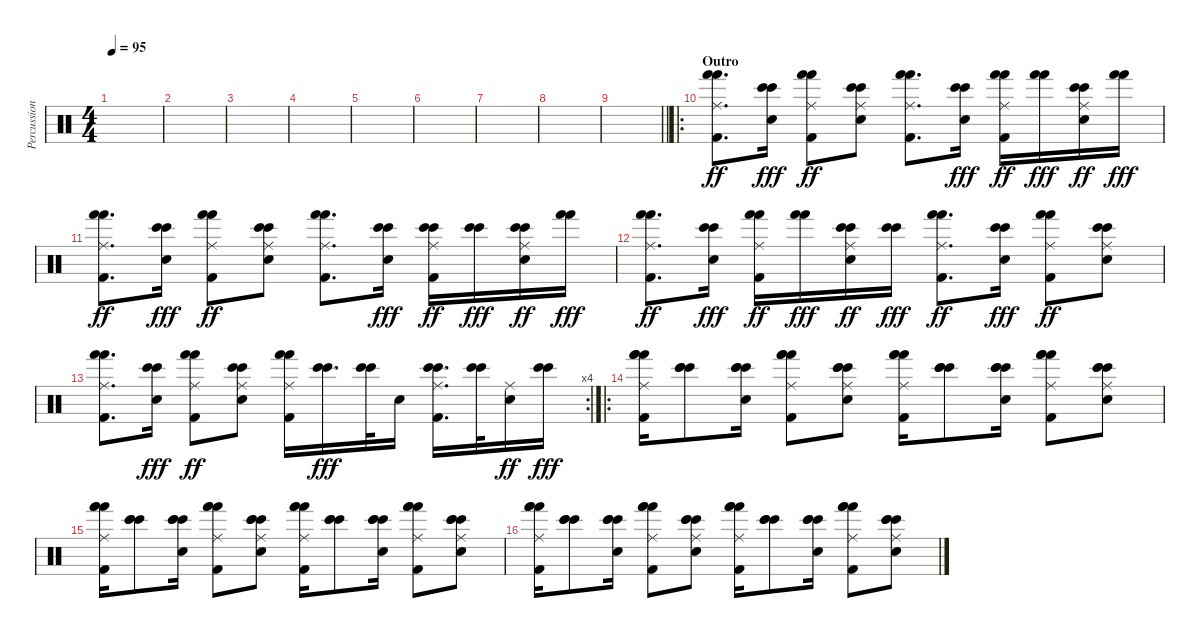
\track ("Percussions" "Percussion") {instrument percussion}
\staff {score}
\articulation defaults
\ts (4 4)
\tempo 95
\clef neutral
\ks c
|
|
|
|
|
|
|
|
\barLineRight lightlight
|
\ro
\section ("" "Outro")
("Hand (hit)" "Hand (hit)" "Kick (hit) 2" "Ride (middle)").8{d dy ff} ("Bongo High (hit)" "Bongo High (hit)" "Electric Snare (hit)").16{dy fff} ("Hand (hit)" "Hand (hit)" "Kick (hit) 2" "Ride (middle)").8{dy ff} ("Bongo High (hit)" "Bongo High (hit)" "Electric Snare (hit)" "Ride (middle)").8 ("Hand (hit)" "Hand (hit)" "Kick (hit) 2" "Ride (middle)").8{d} ("Bongo High (hit)" "Bongo High (hit)" "Electric Snare (hit)").16{dy fff} ("Hand (hit)" "Hand (hit)" "Kick (hit) 2" "Ride (middle)").16{dy ff} ("Hand (hit)" "Hand (hit)").16{dy fff} ("Bongo High (hit)" "Bongo High (hit)" "Electric Snare (hit)" "Ride (middle)").16{dy ff} ("Hand (hit)" "Hand (hit)").16{dy fff} |
("Hand (hit)" "Hand (hit)" "Kick (hit) 2" "Ride (middle)").8{d dy ff} ("Bongo High (hit)" "Bongo High (hit)" "Electric Snare (hit)").16{dy fff} ("Hand (hit)" "Hand (hit)" "Kick (hit) 2" "Ride (middle)").8{dy ff} ("Bongo High (hit)" "Bongo High (hit)" "Electric Snare (hit)" "Ride (middle)").8 ("Hand (hit)" "Hand (hit)" "Kick (hit) 2" "Ride (middle)").8{d} ("Bongo High (hit)" "Bongo High (hit)" "Electric Snare (hit)").16{dy fff} ("Bongo High (hit)" "Bongo High (hit)" "Kick (hit) 2" "Ride (middle)").16{dy ff} ("Bongo High (hit)" "Bongo High (hit)").16{dy fff} ("Bongo High (hit)" "Bongo High (hit)" "Electric Snare (hit)" "Ride (middle)").16{dy ff} ("Hand (hit)" "Hand (hit)").16{dy fff} |
("Hand (hit)" "Hand (hit)" "Kick (hit) 2" "Ride (middle)").8{d dy ff} ("Bongo High (hit)" "Bongo High (hit)" "Electric Snare (hit)").16{dy fff} ("Hand (hit)" "Hand (hit)" "Kick (hit) 2" "Ride (middle)").16{dy ff} ("Hand (hit)" "Hand (hit)").16{dy fff} ("Bongo High (hit)" "Bongo High (hit)" "Electric Snare (hit)" "Ride (middle)").16{dy ff} ("Bongo High (hit)" "Bongo High (hit)").16{dy fff} ("Hand (hit)" "Hand (hit)" "Kick (hit) 2" "Ride (middle)").8{d dy ff} ("Bongo High (hit)" "Bongo High (hit)" "Electric Snare (hit)").16{dy fff} ("Hand (hit)" "Hand (hit)" "Kick (hit) 2" "Ride (middle)").8{dy ff} ("Bongo High (hit)" "Bongo High (hit)" "Electric Snare (hit)" "Ride (middle)").8 |
\rc 4
("Hand (hit)" "Hand (hit)" "Kick (hit) 2" "Ride (middle)").8{d} ("Bongo High (hit)" "Bongo High (hit)" "Electric Snare (hit)").16{dy fff} ("Hand (hit)" "Hand (hit)" "Kick (hit) 2" "Ride (middle)").8{dy ff} ("Bongo High (hit)" "Bongo High (hit)" "Electric Snare (hit)" "Ride (middle)").8 ("Hand (hit)" "Hand (hit)" "Kick (hit) 2" "Ride (middle)").16 ("Bongo High (hit)" "Bongo High (hit)").16{d dy fff} ("Bongo High (hit)" "Bongo High (hit)").32 "Electric Snare (hit)".16 ("Bongo High (hit)" "Bongo High (hit)" "Kick (hit) 2" "Ride (middle)").16{d} ("Bongo High (hit)" "Bongo High (hit)").32 ("Electric Snare (hit)" "Ride (middle)").16{dy ff} ("Bongo High (hit)" "Bongo High (hit)").16{dy fff} |
\ro
("Hand (hit)" "Hand (hit)" "Hand (hit)" "Kick (hit) 2" "Ride (middle)").16 ("Bongo High (hit)" "Bongo High (hit)" "Bongo High (hit)").8 ("Bongo High (hit)" "Bongo High (hit)" "Electric Snare (hit)" "Bongo High (hit)").16 ("Hand (hit)" "Hand (hit)" "Hand (hit)" "Kick (hit) 2" "Ride (middle)").8 ("Bongo High (hit)" "Bongo High (hit)" "Electric Snare (hit)" "Bongo High (hit)" "Ride (middle)").8 ("Hand (hit)" "Hand (hit)" "Hand (hit)" "Kick (hit) 2" "Ride (middle)").16 ("Bongo High (hit)" "Bongo High (hit)" "Bongo High (hit)").8 ("Bongo High (hit)" "Bongo High (hit)" "Electric Snare (hit)" "Bongo High (hit)").16 ("Hand (hit)" "Hand (hit)" "Hand (hit)" "Kick (hit) 2" "Ride (middle)").8 ("Bongo High (hit)" "Bongo High (hit)" "Electric Snare (hit)" "Bongo High (hit)" "Ride (middle)").8 |
("Hand (hit)" "Hand (hit)" "Hand (hit)" "Kick (hit) 2" "Ride (middle)").16 ("Bongo High (hit)" "Bongo High (hit)" "Bongo High (hit)").8 ("Bongo High (hit)" "Bongo High (hit)" "Electric Snare (hit)" "Bongo High (hit)").16 ("Hand (hit)" "Hand (hit)" "Hand (hit)" "Kick (hit) 2" "Ride (middle)").8 ("Bongo High (hit)" "Bongo High (hit)" "Electric Snare (hit)" "Bongo High (hit)" "Ride (middle)").8 ("Hand (hit)" "Hand (hit)" "Hand (hit)" "Kick (hit) 2" "Ride (middle)").16 ("Bongo High (hit)" "Bongo High (hit)" "Bongo High (hit)").8 ("Bongo High (hit)" "Bongo High (hit)" "Electric Snare (hit)" "Bongo High (hit)").16 ("Hand (hit)" "Hand (hit)" "Hand (hit)" "Kick (hit) 2" "Ride (middle)").8 ("Bongo High (hit)" "Bongo High (hit)" "Electric Snare (hit)" "Bongo High (hit)" "Ride (middle)").8 |
("Hand (hit)" "Hand (hit)" "Hand (hit)" "Kick (hit) 2" "Ride (middle)").16 ("Bongo High (hit)" "Bongo High (hit)" "Bongo High (hit)").8 ("Bongo High (hit)" "Bongo High (hit)" "Electric Snare (hit)" "Bongo High (hit)").16 ("Hand (hit)" "Hand (hit)" "Hand (hit)" "Kick (hit) 2" "Ride (middle)").8 ("Bongo High (hit)" "Bongo High (hit)" "Electric Snare (hit)" "Bongo High (hit)" "Ride (middle)").8 ("Hand (hit)" "Hand (hit)" "Hand (hit)" "Kick (hit) 2" "Ride (middle)").16 ("Bongo High (hit)" "Bongo High (hit)" "Bongo High (hit)").8 ("Bongo High (hit)" "Bongo High (hit)" "Electric Snare (hit)" "Bongo High (hit)").16 ("Hand (hit)" "Hand (hit)" "Hand (hit)" "Kick (hit) 2" "Ride (middle)").8 ("Bongo High (hit)" "Bongo High (hit)" "Electric Snare (hit)" "Bongo High (hit)" "Ride (middle)").8
